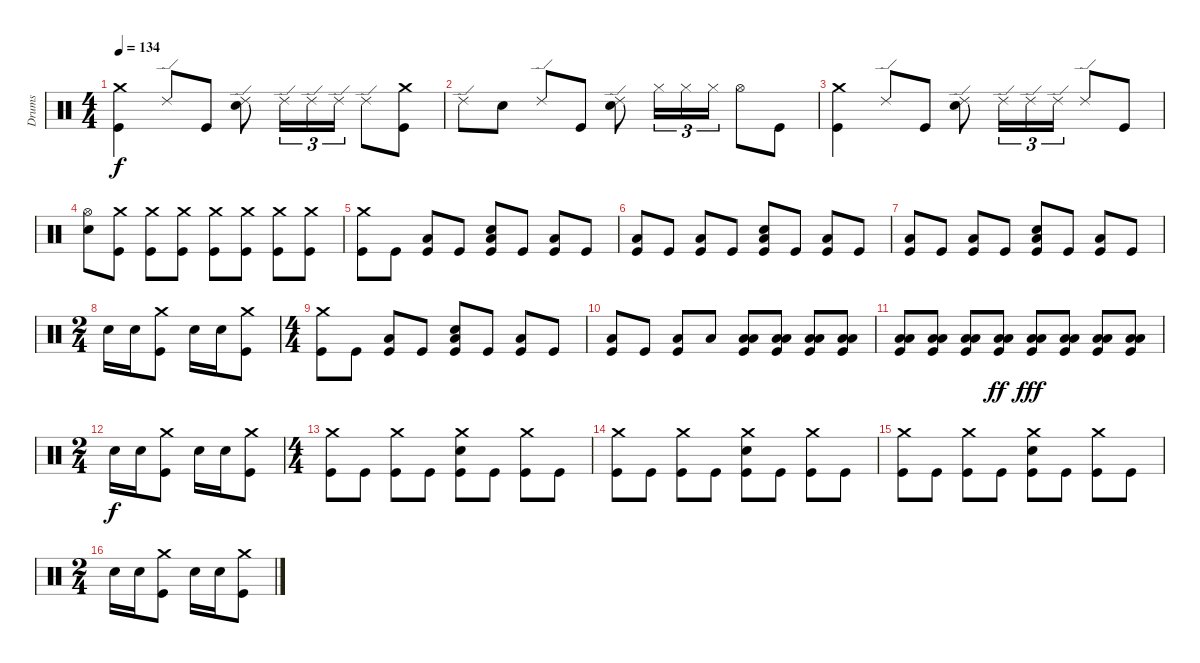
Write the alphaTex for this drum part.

\track ("Drums" "Drums") {instrument percussion}
\staff {score}
\articulation defaults
\ts (4 4)
\tempo 134
\clef neutral
\ks c
("Crash medium (hit)" "Kick (hit)").4{dy f} "Ride (edge) 2".8 "Kick (hit)".8 ("Ride (edge) 2" "Electric Snare (hit)").8 "Ride (edge) 2".16{tu (3 2)} "Ride (edge) 2".16{tu (3 2)} "Ride (edge) 2".16{tu (3 2)} "Ride (edge) 2".8 ("Crash medium (hit)" "Kick (hit)").8 |
"Ride (edge) 2".8 "Electric Snare (hit)".8 "Ride (edge) 2".8 "Kick (hit)".8 ("Ride (edge) 2" "Electric Snare (hit)").8 "Hi-Hat (closed)".16{tu (3 2)} "Hi-Hat (closed)".16{tu (3 2)} "Hi-Hat (closed)".16{tu (3 2)} "Hi-Hat (open)".8 "Kick (hit)".8 |
("Crash medium (hit)" "Kick (hit)").4 "Ride (edge) 2".8 "Kick (hit)".8 ("Ride (edge) 2" "Electric Snare (hit)").8 "Ride (edge) 2".16{tu (3 2)} "Ride (edge) 2".16{tu (3 2)} "Ride (edge) 2".16{tu (3 2)} "Ride (edge) 2".8 "Kick (hit)".8 |
("Hi-Hat (open)" "Electric Snare (hit)").8 ("Crash medium (hit)" "Kick (hit)").8 ("Crash medium (hit)" "Kick (hit)").8 ("Crash medium (hit)" "Kick (hit)").8 ("Crash medium (hit)" "Kick (hit)").8 ("Crash medium (hit)" "Kick (hit)").8 ("Crash medium (hit)" "Kick (hit)").8 ("Crash medium (hit)" "Kick (hit)").8 |
("Kick (hit)" "Crash medium (hit)").8 "Kick (hit)".8 ("Kick (hit)" "Low Floor Tom (hit)").8 "Kick (hit)".8 ("Electric Snare (hit)" "Kick (hit)" "Low Floor Tom (hit)").8 "Kick (hit)".8 ("Kick (hit)" "Low Floor Tom (hit)").8 "Kick (hit)".8 |
("Kick (hit)" "Low Floor Tom (hit)").8 "Kick (hit)".8 ("Kick (hit)" "Low Floor Tom (hit)").8 "Kick (hit)".8 ("Electric Snare (hit)" "Kick (hit)" "Low Floor Tom (hit)").8 "Kick (hit)".8 ("Kick (hit)" "Low Floor Tom (hit)").8 "Kick (hit)".8 |
("Kick (hit)" "Low Floor Tom (hit)").8 "Kick (hit)".8 ("Kick (hit)" "Low Floor Tom (hit)").8 "Kick (hit)".8 ("Electric Snare (hit)" "Kick (hit)" "Low Floor Tom (hit)").8 "Kick (hit)".8 ("Kick (hit)" "Low Floor Tom (hit)").8 "Kick (hit)".8 |
\ts (2 4)
"Electric Snare (hit)".16 "Electric Snare (hit)".16 ("Crash medium (hit)" "Kick (hit)").8 "Electric Snare (hit)".16 "Electric Snare (hit)".16 ("Crash medium (hit)" "Kick (hit)").8 |
\ts (4 4)
("Kick (hit)" "Crash medium (hit)").8 "Kick (hit)".8 ("Kick (hit)" "Low Floor Tom (hit)").8 "Kick (hit)".8 ("Electric Snare (hit)" "Kick (hit)" "Low Floor Tom (hit)").8 "Kick (hit)".8 ("Kick (hit)" "Low Floor Tom (hit)").8 "Kick (hit)".8 |
("Kick (hit)" "Low Floor Tom (hit)").8 "Kick (hit)".8 ("Low Floor Tom (hit)" "Kick (hit)").8 "Low Floor Tom (hit)".8 ("Kick (hit)" "Low Tom (hit)" "Low Floor Tom (hit)").8 ("Kick (hit)" "Low Tom (hit)" "Low Floor Tom (hit)").8 ("Kick (hit)" "Low Tom (hit)" "Low Floor Tom (hit)").8 ("Kick (hit)" "Low Tom (hit)" "Low Floor Tom (hit)").8 |
("Kick (hit)" "Low Tom (hit)" "Low Floor Tom (hit)").8 ("Kick (hit)" "Low Tom (hit)" "Low Floor Tom (hit)").8 ("Kick (hit)" "Low Tom (hit)" "Low Floor Tom (hit)").8 ("Kick (hit)" "Low Tom (hit)" "Low Floor Tom (hit)").8{dy ff} ("Kick (hit)" "Low Tom (hit)" "Low Floor Tom (hit)").8{dy fff} ("Kick (hit)" "Low Tom (hit)" "Low Floor Tom (hit)").8 ("Kick (hit)" "Low Tom (hit)" "Low Floor Tom (hit)").8 ("Kick (hit)" "Low Tom (hit)" "Low Floor Tom (hit)").8 |
\ts (2 4)
"Electric Snare (hit)".16{dy f} "Electric Snare (hit)".16 ("Crash medium (hit)" "Kick (hit)").8 "Electric Snare (hit)".16 "Electric Snare (hit)".16 ("Crash medium (hit)" "Kick (hit)").8 |
\ts (4 4)
("Crash medium (hit)" "Kick (hit)").8 "Kick (hit)".8 ("Crash medium (hit)" "Kick (hit)").8 "Kick (hit)".8 ("Crash medium (hit)" "Electric Snare (hit)" "Kick (hit)").8 "Kick (hit)".8 ("Crash medium (hit)" "Kick (hit)").8 "Kick (hit)".8 |
("Crash medium (hit)" "Kick (hit)").8 "Kick (hit)".8 ("Crash medium (hit)" "Kick (hit)").8 "Kick (hit)".8 ("Crash medium (hit)" "Electric Snare (hit)" "Kick (hit)").8 "Kick (hit)".8 ("Crash medium (hit)" "Kick (hit)").8 "Kick (hit)".8 |
("Crash medium (hit)" "Kick (hit)").8 "Kick (hit)".8 ("Crash medium (hit)" "Kick (hit)").8 "Kick (hit)".8 ("Crash medium (hit)" "Electric Snare (hit)" "Kick (hit)").8 "Kick (hit)".8 ("Crash medium (hit)" "Kick (hit)").8 "Kick (hit)".8 |
\ts (2 4)
"Electric Snare (hit)".16 "Electric Snare (hit)".16 ("Crash medium (hit)" "Kick (hit)").8 "Electric Snare (hit)".16 "Electric Snare (hit)".16 ("Crash medium (hit)" "Kick (hit)").8
